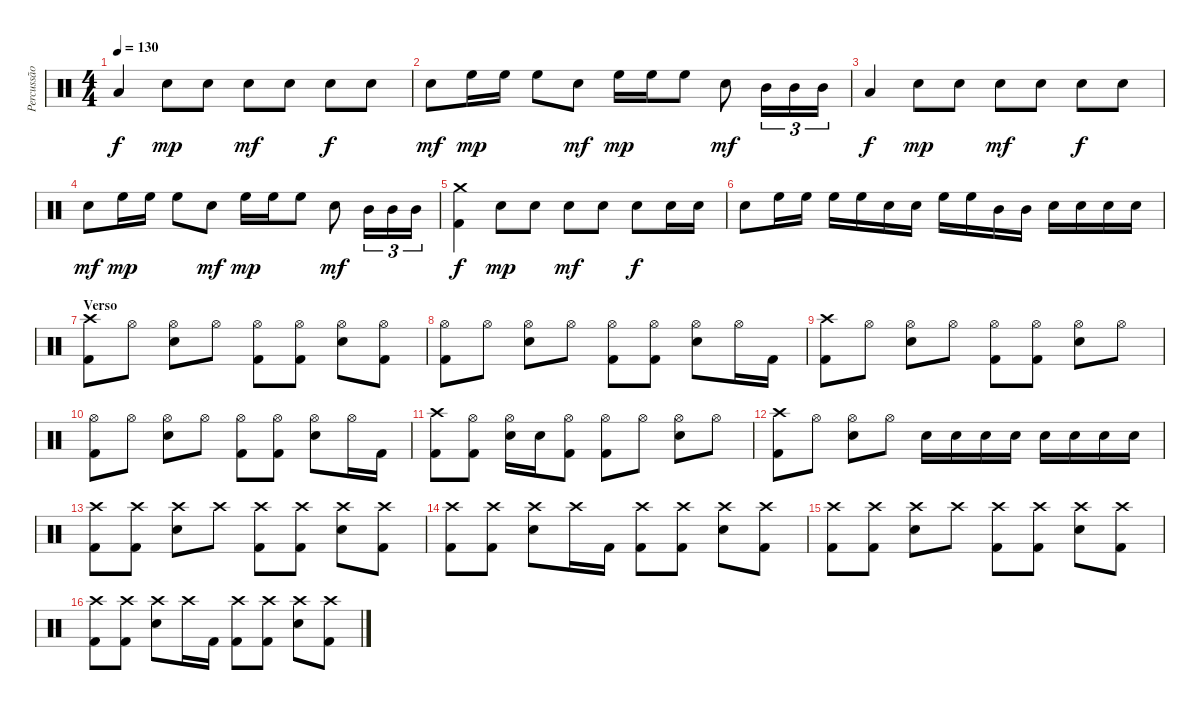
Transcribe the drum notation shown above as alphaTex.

\track ("Percussão" "Percussão") {instrument percussion}
\staff {score}
\articulation defaults
\ts (4 4)
\tempo 130
\clef neutral
\ks c "Low Tom (hit)".4{dy f} "Electric Snare (hit)".8{dy mp} "Electric Snare (hit)".8 "Electric Snare (hit)".8{dy mf} "Electric Snare (hit)".8 "Electric Snare (hit)".8{dy f} "Electric Snare (hit)".8
|
"Electric Snare (hit)".8{dy mf} "High Floor Tom (hit)".16{dy mp} "High Floor Tom (hit)".16 "High Floor Tom (hit)".8 "Electric Snare (hit)".8{dy mf} "High Floor Tom (hit)".16{dy mp} "High Floor Tom (hit)".16 "High Floor Tom (hit)".8 "Electric Snare (hit)".8{dy mf} "Mid Tom (hit)".16{tu (3 2)} "Mid Tom (hit)".16{tu (3 2)} "Mid Tom (hit)".16{tu (3 2)} |
"Low Tom (hit)".4{dy f} "Electric Snare (hit)".8{dy mp} "Electric Snare (hit)".8 "Electric Snare (hit)".8{dy mf} "Electric Snare (hit)".8 "Electric Snare (hit)".8{dy f} "Electric Snare (hit)".8 |
"Electric Snare (hit)".8{dy mf} "High Floor Tom (hit)".16{dy mp} "High Floor Tom (hit)".16 "High Floor Tom (hit)".8 "Electric Snare (hit)".8{dy mf} "High Floor Tom (hit)".16{dy mp} "High Floor Tom (hit)".16 "High Floor Tom (hit)".8 "Electric Snare (hit)".8{dy mf} "Mid Tom (hit)".16{tu (3 2)} "Mid Tom (hit)".16{tu (3 2)} "Mid Tom (hit)".16{tu (3 2)} |
("Crash medium (hit)" "Kick (hit) 2").4{dy f} "Electric Snare (hit)".8{dy mp} "Electric Snare (hit)".8 "Electric Snare (hit)".8{dy mf} "Electric Snare (hit)".8 "Electric Snare (hit)".8{dy f} "Electric Snare (hit)".16 "Electric Snare (hit)".16 |
"Electric Snare (hit)".8 "High Floor Tom (hit)".16 "High Floor Tom (hit)".16 "High Floor Tom (hit)".16 "High Floor Tom (hit)".16 "Electric Snare (hit)".16 "Electric Snare (hit)".16 "High Floor Tom (hit)".16 "High Floor Tom (hit)".16 "Mid Tom (hit)".16 "Mid Tom (hit)".16 "Electric Snare (hit)".16 "Electric Snare (hit)".16 "Electric Snare (hit)".16 "Electric Snare (hit)".16 |
\section ("" "Verso")
("Crash high (hit)" "Kick (hit) 2").8 "Hi-Hat (open)".8 ("Hi-Hat (open)" "Electric Snare (hit)").8 "Hi-Hat (open)".8 ("Hi-Hat (open)" "Kick (hit) 2").8 ("Hi-Hat (open)" "Kick (hit) 2").8 ("Hi-Hat (open)" "Electric Snare (hit)").8 ("Hi-Hat (open)" "Kick (hit) 2").8 |
("Hi-Hat (open)" "Kick (hit) 2").8 "Hi-Hat (open)".8 ("Hi-Hat (open)" "Electric Snare (hit)").8 "Hi-Hat (open)".8 ("Hi-Hat (open)" "Kick (hit) 2").8 ("Hi-Hat (open)" "Kick (hit) 2").8 ("Hi-Hat (open)" "Electric Snare (hit)").8 "Hi-Hat (open)".16 "Kick (hit) 2".16 |
("Crash high (hit)" "Kick (hit) 2").8 "Hi-Hat (open)".8 ("Hi-Hat (open)" "Electric Snare (hit)").8 "Hi-Hat (open)".8 ("Hi-Hat (open)" "Kick (hit) 2").8 ("Hi-Hat (open)" "Kick (hit) 2").8 ("Hi-Hat (open)" "Electric Snare (hit)").8 "Hi-Hat (open)".8 |
("Hi-Hat (open)" "Kick (hit) 2").8 "Hi-Hat (open)".8 ("Hi-Hat (open)" "Electric Snare (hit)").8 "Hi-Hat (open)".8 ("Hi-Hat (open)" "Kick (hit) 2").8 ("Hi-Hat (open)" "Kick (hit) 2").8 ("Hi-Hat (open)" "Electric Snare (hit)").8 "Hi-Hat (open)".16 "Kick (hit) 2".16 |
("Crash high (hit)" "Kick (hit) 2").8 ("Hi-Hat (open)" "Kick (hit) 2").8 ("Hi-Hat (open)" "Electric Snare (hit)").16 "Electric Snare (hit)".16 ("Hi-Hat (open)" "Kick (hit) 2").8 ("Hi-Hat (open)" "Kick (hit) 2").8 "Hi-Hat (open)".8 ("Hi-Hat (open)" "Electric Snare (hit)").8 "Hi-Hat (open)".8 |
("Crash high (hit)" "Kick (hit) 2").8 "Hi-Hat (open)".8 ("Hi-Hat (open)" "Electric Snare (hit)").8 "Hi-Hat (open)".8 "Electric Snare (hit)".16 "Electric Snare (hit)".16 "Electric Snare (hit)".16 "Electric Snare (hit)".16 "Electric Snare (hit)".16 "Electric Snare (hit)".16 "Electric Snare (hit)".16 "Electric Snare (hit)".16 |
("Crash high (hit)" "Kick (hit) 2").8 ("Crash high (hit)" "Kick (hit) 2").8 ("Crash high (hit)" "Electric Snare (hit)").8 "Crash high (hit)".8 ("Crash high (hit)" "Kick (hit) 2").8 ("Crash high (hit)" "Kick (hit) 2").8 ("Crash high (hit)" "Electric Snare (hit)").8 ("Crash high (hit)" "Kick (hit) 2").8 |
("Crash high (hit)" "Kick (hit) 2").8 ("Crash high (hit)" "Kick (hit) 2").8 ("Crash high (hit)" "Electric Snare (hit)").8 "Crash high (hit)".16 "Kick (hit) 2".16 ("Crash high (hit)" "Kick (hit) 2").8 ("Crash high (hit)" "Kick (hit) 2").8 ("Crash high (hit)" "Electric Snare (hit)").8 ("Crash high (hit)" "Kick (hit) 2").8 |
("Crash high (hit)" "Kick (hit) 2").8 ("Crash high (hit)" "Kick (hit) 2").8 ("Crash high (hit)" "Electric Snare (hit)").8 "Crash high (hit)".8 ("Crash high (hit)" "Kick (hit) 2").8 ("Crash high (hit)" "Kick (hit) 2").8 ("Crash high (hit)" "Electric Snare (hit)").8 ("Crash high (hit)" "Kick (hit) 2").8 |
("Crash high (hit)" "Kick (hit) 2").8 ("Crash high (hit)" "Kick (hit) 2").8 ("Crash high (hit)" "Electric Snare (hit)").8 "Crash high (hit)".16 "Kick (hit) 2".16 ("Crash high (hit)" "Kick (hit) 2").8 ("Crash high (hit)" "Kick (hit) 2").8 ("Crash high (hit)" "Electric Snare (hit)").8 ("Crash high (hit)" "Kick (hit) 2").8
